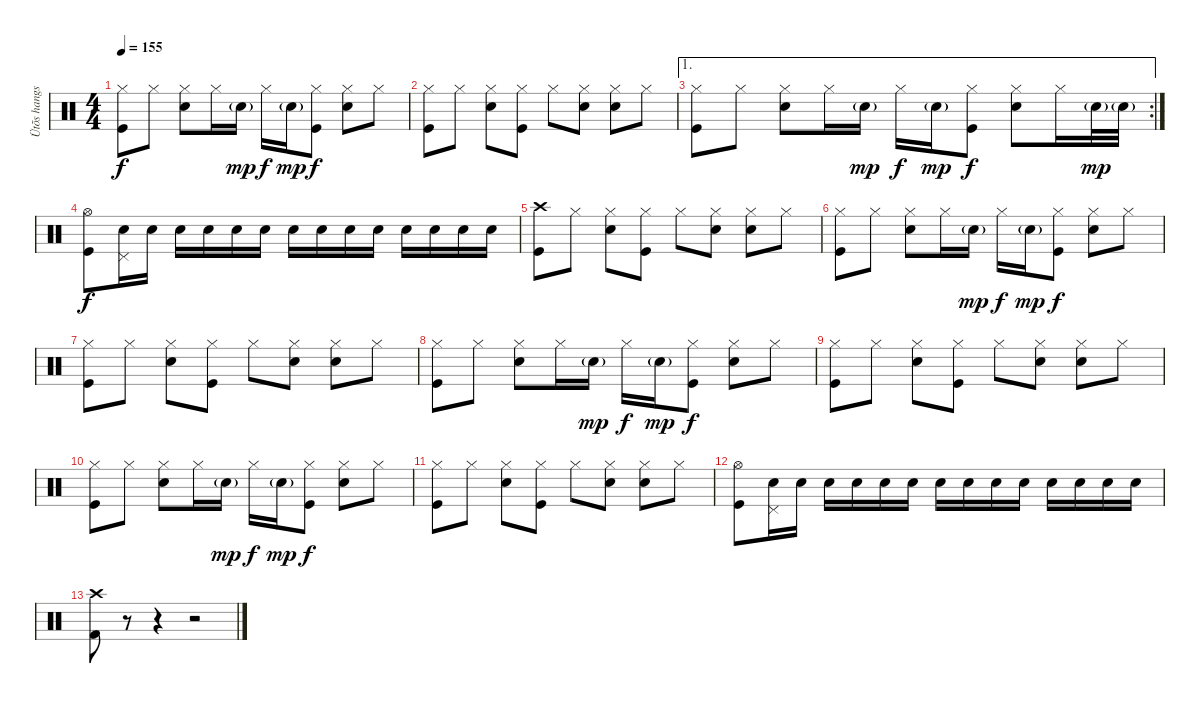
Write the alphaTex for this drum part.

\track ("Ütõs hangszer" "Ütõs hangs") {instrument percussion}
\staff {score}
\articulation defaults
\ts (4 4)
\tempo 155
\clef neutral
\ks c
("Hi-Hat (closed)" "Kick (hit)").8{dy f} "Hi-Hat (closed)".8 ("Hi-Hat (closed)" "Electric Snare (hit)").8 "Hi-Hat (closed)".16 "Electric Snare (hit)"{g}.16{dy mp} "Hi-Hat (closed)".16{dy f} "Electric Snare (hit)"{g}.16{dy mp} ("Hi-Hat (closed)" "Kick (hit)").8{dy f} ("Hi-Hat (closed)" "Electric Snare (hit)").8 "Hi-Hat (closed)".8 |
("Hi-Hat (closed)" "Kick (hit)").8 "Hi-Hat (closed)".8 ("Hi-Hat (closed)" "Electric Snare (hit)").8 ("Hi-Hat (closed)" "Kick (hit)").8 "Hi-Hat (closed)".8 ("Hi-Hat (closed)" "Electric Snare (hit)").8 ("Hi-Hat (closed)" "Electric Snare (hit)").8 "Hi-Hat (closed)".8 |
\ae 1
\rc 2
("Hi-Hat (closed)" "Kick (hit)").8 "Hi-Hat (closed)".8 ("Hi-Hat (closed)" "Electric Snare (hit)").8 "Hi-Hat (closed)".16 "Electric Snare (hit)"{g}.16{dy mp} "Hi-Hat (closed)".16{dy f} "Electric Snare (hit)"{g}.16{dy mp} ("Hi-Hat (closed)" "Kick (hit)").8{dy f} ("Hi-Hat (closed)" "Electric Snare (hit)").8 "Hi-Hat (closed)".16 "Electric Snare (hit)"{g}.32{dy mp} "Electric Snare (hit)"{g}.32 |
("Hi-Hat (open)" "Kick (hit)").8{dy f} ("Pedal Hi-Hat (hit)" "Electric Snare (hit)").16 "Electric Snare (hit)".16 "Electric Snare (hit)".16 "Electric Snare (hit)".16 "Electric Snare (hit)".16 "Electric Snare (hit)".16 "Electric Snare (hit)".16 "Electric Snare (hit)".16 "Electric Snare (hit)".16 "Electric Snare (hit)".16 "Electric Snare (hit)".16 "Electric Snare (hit)".16 "Electric Snare (hit)".16 "Electric Snare (hit)".16 |
("Crash high (hit)" "Kick (hit)").8 "Hi-Hat (closed)".8 ("Hi-Hat (closed)" "Electric Snare (hit)").8 ("Hi-Hat (closed)" "Kick (hit)").8 "Hi-Hat (closed)".8 ("Hi-Hat (closed)" "Electric Snare (hit)").8 ("Hi-Hat (closed)" "Electric Snare (hit)").8 "Hi-Hat (closed)".8 |
("Hi-Hat (closed)" "Kick (hit)").8 "Hi-Hat (closed)".8 ("Hi-Hat (closed)" "Electric Snare (hit)").8 "Hi-Hat (closed)".16 "Electric Snare (hit)"{g}.16{dy mp} "Hi-Hat (closed)".16{dy f} "Electric Snare (hit)"{g}.16{dy mp} ("Hi-Hat (closed)" "Kick (hit)").8{dy f} ("Hi-Hat (closed)" "Electric Snare (hit)").8 "Hi-Hat (closed)".8 |
("Hi-Hat (closed)" "Kick (hit)").8 "Hi-Hat (closed)".8 ("Hi-Hat (closed)" "Electric Snare (hit)").8 ("Hi-Hat (closed)" "Kick (hit)").8 "Hi-Hat (closed)".8 ("Hi-Hat (closed)" "Electric Snare (hit)").8 ("Hi-Hat (closed)" "Electric Snare (hit)").8 "Hi-Hat (closed)".8 |
("Hi-Hat (closed)" "Kick (hit)").8 "Hi-Hat (closed)".8 ("Hi-Hat (closed)" "Electric Snare (hit)").8 "Hi-Hat (closed)".16 "Electric Snare (hit)"{g}.16{dy mp} "Hi-Hat (closed)".16{dy f} "Electric Snare (hit)"{g}.16{dy mp} ("Hi-Hat (closed)" "Kick (hit)").8{dy f} ("Hi-Hat (closed)" "Electric Snare (hit)").8 "Hi-Hat (closed)".8 |
("Hi-Hat (closed)" "Kick (hit)").8 "Hi-Hat (closed)".8 ("Hi-Hat (closed)" "Electric Snare (hit)").8 ("Hi-Hat (closed)" "Kick (hit)").8 "Hi-Hat (closed)".8 ("Hi-Hat (closed)" "Electric Snare (hit)").8 ("Hi-Hat (closed)" "Electric Snare (hit)").8 "Hi-Hat (closed)".8 |
("Hi-Hat (closed)" "Kick (hit)").8 "Hi-Hat (closed)".8 ("Hi-Hat (closed)" "Electric Snare (hit)").8 "Hi-Hat (closed)".16 "Electric Snare (hit)"{g}.16{dy mp} "Hi-Hat (closed)".16{dy f} "Electric Snare (hit)"{g}.16{dy mp} ("Hi-Hat (closed)" "Kick (hit)").8{dy f} ("Hi-Hat (closed)" "Electric Snare (hit)").8 "Hi-Hat (closed)".8 |
("Hi-Hat (closed)" "Kick (hit)").8 "Hi-Hat (closed)".8 ("Hi-Hat (closed)" "Electric Snare (hit)").8 ("Hi-Hat (closed)" "Kick (hit)").8 "Hi-Hat (closed)".8 ("Hi-Hat (closed)" "Electric Snare (hit)").8 ("Hi-Hat (closed)" "Electric Snare (hit)").8 "Hi-Hat (closed)".8 |
("Hi-Hat (open)" "Kick (hit)").8 ("Pedal Hi-Hat (hit)" "Electric Snare (hit)").16 "Electric Snare (hit)".16 "Electric Snare (hit)".16 "Electric Snare (hit)".16 "Electric Snare (hit)".16 "Electric Snare (hit)".16 "Electric Snare (hit)".16 "Electric Snare (hit)".16 "Electric Snare (hit)".16 "Electric Snare (hit)".16 "Electric Snare (hit)".16 "Electric Snare (hit)".16 "Electric Snare (hit)".16 "Electric Snare (hit)".16 |
("Crash high (hit)" "Kick (hit) 2").8 r.8 r.4 r.2
